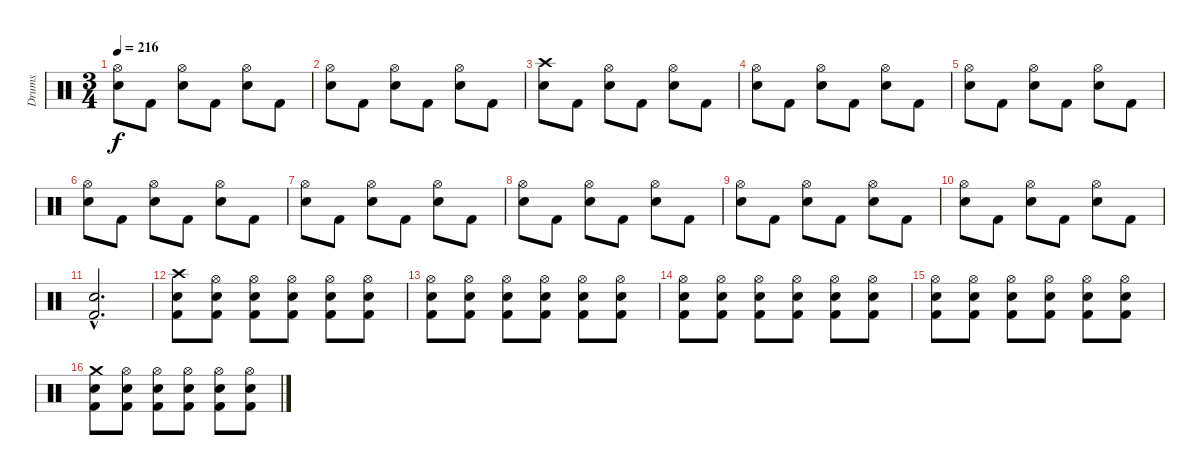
\track ("Drums" "Drums") {instrument percussion}
\staff {score}
\articulation defaults
\ts (3 4)
\tempo 216
\clef neutral
\ks c
("Hi-Hat (open)" "Electric Snare (hit)").8{dy f} "Kick (hit) 2".8 ("Hi-Hat (open)" "Electric Snare (hit)").8 "Kick (hit) 2".8 ("Hi-Hat (open)" "Electric Snare (hit)").8 "Kick (hit) 2".8 |
("Hi-Hat (open)" "Electric Snare (hit)").8 "Kick (hit) 2".8 ("Hi-Hat (open)" "Electric Snare (hit)").8 "Kick (hit) 2".8 ("Hi-Hat (open)" "Electric Snare (hit)").8 "Kick (hit) 2".8 |
("Crash high (hit)" "Electric Snare (hit)").8 "Kick (hit) 2".8 ("Hi-Hat (open)" "Electric Snare (hit)").8 "Kick (hit) 2".8 ("Hi-Hat (open)" "Electric Snare (hit)").8 "Kick (hit) 2".8 |
("Hi-Hat (open)" "Electric Snare (hit)").8 "Kick (hit) 2".8 ("Hi-Hat (open)" "Electric Snare (hit)").8 "Kick (hit) 2".8 ("Hi-Hat (open)" "Electric Snare (hit)").8 "Kick (hit) 2".8 |
("Hi-Hat (open)" "Electric Snare (hit)").8 "Kick (hit) 2".8 ("Hi-Hat (open)" "Electric Snare (hit)").8 "Kick (hit) 2".8 ("Hi-Hat (open)" "Electric Snare (hit)").8 "Kick (hit) 2".8 |
("Hi-Hat (open)" "Electric Snare (hit)").8 "Kick (hit) 2".8 ("Hi-Hat (open)" "Electric Snare (hit)").8 "Kick (hit) 2".8 ("Hi-Hat (open)" "Electric Snare (hit)").8 "Kick (hit) 2".8 |
("Hi-Hat (open)" "Electric Snare (hit)").8 "Kick (hit) 2".8 ("Hi-Hat (open)" "Electric Snare (hit)").8 "Kick (hit) 2".8 ("Hi-Hat (open)" "Electric Snare (hit)").8 "Kick (hit) 2".8 |
("Hi-Hat (open)" "Electric Snare (hit)").8 "Kick (hit) 2".8 ("Hi-Hat (open)" "Electric Snare (hit)").8 "Kick (hit) 2".8 ("Hi-Hat (open)" "Electric Snare (hit)").8 "Kick (hit) 2".8 |
("Hi-Hat (open)" "Electric Snare (hit)").8 "Kick (hit) 2".8 ("Hi-Hat (open)" "Electric Snare (hit)").8 "Kick (hit) 2".8 ("Hi-Hat (open)" "Electric Snare (hit)").8 "Kick (hit) 2".8 |
("Hi-Hat (open)" "Electric Snare (hit)").8 "Kick (hit) 2".8 ("Hi-Hat (open)" "Electric Snare (hit)").8 "Kick (hit) 2".8 ("Hi-Hat (open)" "Electric Snare (hit)").8 "Kick (hit) 2".8 |
("Electric Snare (hit)"{hac} "Kick (hit) 2"{hac}).2{d} |
("Crash high (hit)" "Electric Snare (hit)" "Kick (hit) 2").8 ("Hi-Hat (open)" "Electric Snare (hit)" "Kick (hit) 2").8 ("Hi-Hat (open)" "Electric Snare (hit)" "Kick (hit) 2").8 ("Hi-Hat (open)" "Electric Snare (hit)" "Kick (hit) 2").8 ("Hi-Hat (open)" "Electric Snare (hit)" "Kick (hit) 2").8 ("Hi-Hat (open)" "Electric Snare (hit)" "Kick (hit) 2").8 |
("Hi-Hat (open)" "Electric Snare (hit)" "Kick (hit) 2").8 ("Hi-Hat (open)" "Electric Snare (hit)" "Kick (hit) 2").8 ("Hi-Hat (open)" "Electric Snare (hit)" "Kick (hit) 2").8 ("Hi-Hat (open)" "Electric Snare (hit)" "Kick (hit) 2").8 ("Hi-Hat (open)" "Electric Snare (hit)" "Kick (hit) 2").8 ("Hi-Hat (open)" "Electric Snare (hit)" "Kick (hit) 2").8 |
("Hi-Hat (open)" "Electric Snare (hit)" "Kick (hit) 2").8 ("Hi-Hat (open)" "Electric Snare (hit)" "Kick (hit) 2").8 ("Hi-Hat (open)" "Electric Snare (hit)" "Kick (hit) 2").8 ("Hi-Hat (open)" "Electric Snare (hit)" "Kick (hit) 2").8 ("Hi-Hat (open)" "Electric Snare (hit)" "Kick (hit) 2").8 ("Hi-Hat (open)" "Electric Snare (hit)" "Kick (hit) 2").8 |
("Hi-Hat (open)" "Electric Snare (hit)" "Kick (hit) 2").8 ("Hi-Hat (open)" "Electric Snare (hit)" "Kick (hit) 2").8 ("Hi-Hat (open)" "Electric Snare (hit)" "Kick (hit) 2").8 ("Hi-Hat (open)" "Electric Snare (hit)" "Kick (hit) 2").8 ("Hi-Hat (open)" "Electric Snare (hit)" "Kick (hit) 2").8 ("Hi-Hat (open)" "Electric Snare (hit)" "Kick (hit) 2").8 |
("Crash medium (hit)" "Electric Snare (hit)" "Kick (hit) 2").8 ("Hi-Hat (open)" "Electric Snare (hit)" "Kick (hit) 2").8 ("Hi-Hat (open)" "Electric Snare (hit)" "Kick (hit) 2").8 ("Hi-Hat (open)" "Electric Snare (hit)" "Kick (hit) 2").8 ("Hi-Hat (open)" "Electric Snare (hit)" "Kick (hit) 2").8 ("Hi-Hat (open)" "Electric Snare (hit)" "Kick (hit) 2").8
